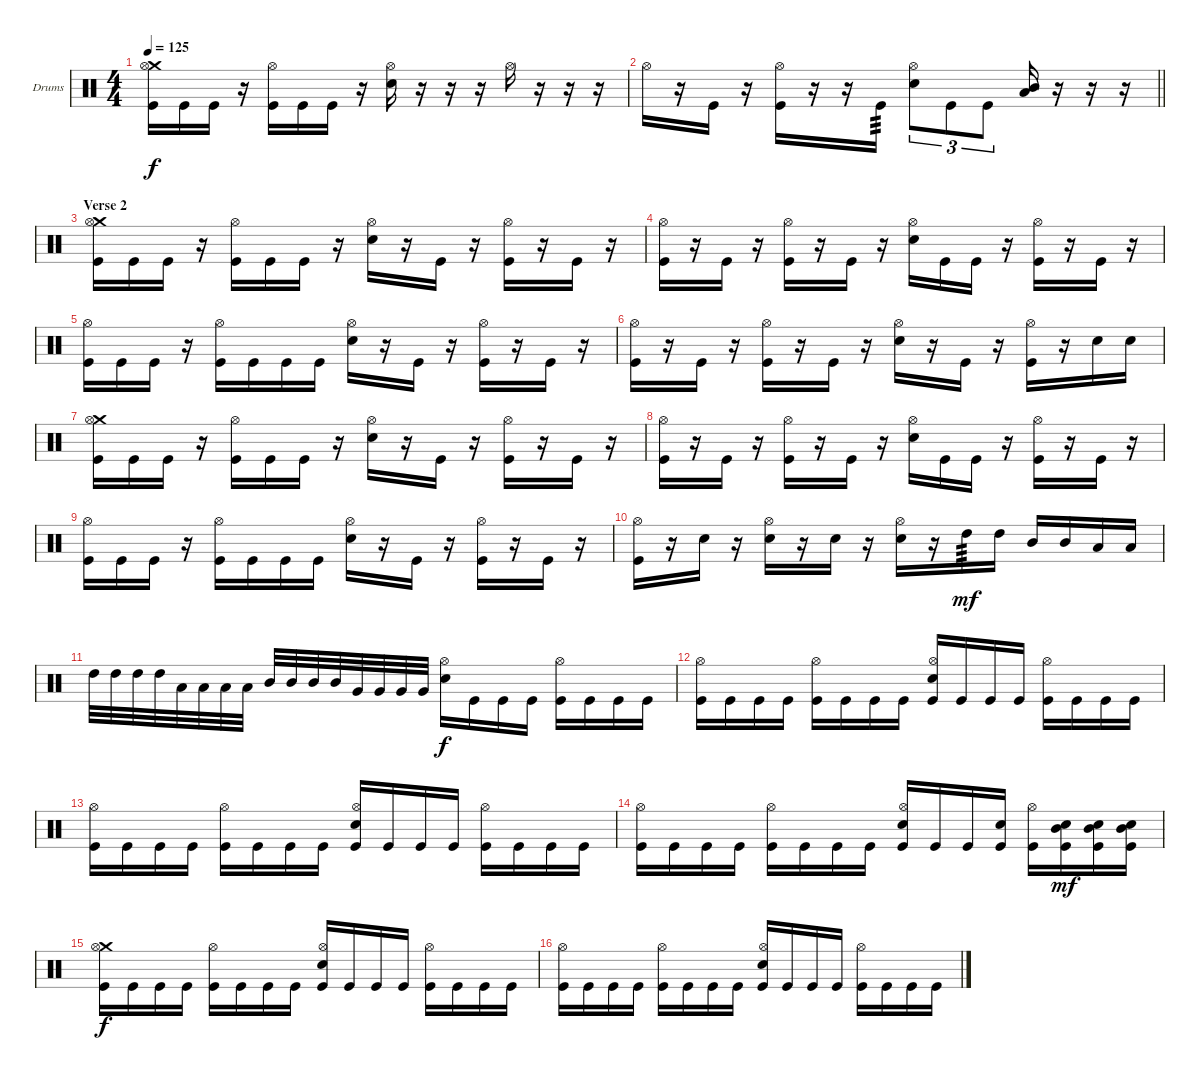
\bracketExtendMode groupsimilarinstruments
\firstSystemTrackNameOrientation horizontal
\otherSystemsTrackNameOrientation horizontal
\track ("Drumkit" "Drums") {instrument percussion}
\staff {score}
\articulation defaults
\ts (4 4)
\tempo 125
\clef neutral
\ks c
("Crash medium (hit)" "Kick (hit)" "Hi-Hat (open)").16{dy f} "Kick (hit)".16 "Kick (hit)".16 r.16 ("Kick (hit)" "Hi-Hat (open)").16 "Kick (hit)".16 "Kick (hit)".16 r.16 ("Snare (hit) 2" "Hi-Hat (open)").16 r.16 r.16 r.16 "Hi-Hat (open)".16 r.16 r.16 r.16 |
\barLineRight lightlight "Hi-Hat (open)".16
r.16 "Kick (hit)".16 r.16 ("Kick (hit)" "Hi-Hat (open)").16 r.16 r.16 "Kick (hit)".16{tp 3} ("Snare (hit) 2" "Hi-Hat (open)").8{tu (3 2)} "Kick (hit)".8{tu (3 2)} "Kick (hit)".8{tu (3 2)} ("Low Tom (hit)" "Mid Tom (hit)").16 r.16 r.16 r.16 |
\section ("" "Verse 2")
("Crash medium (hit)" "Kick (hit)" "Hi-Hat (open)").16 "Kick (hit)".16 "Kick (hit)".16 r.16 ("Kick (hit)" "Hi-Hat (open)").16 "Kick (hit)".16 "Kick (hit)".16 r.16 ("Snare (hit) 2" "Hi-Hat (open)").16 r.16 "Kick (hit)".16 r.16 ("Kick (hit)" "Hi-Hat (open)").16 r.16 "Kick (hit)".16 r.16 |
("Kick (hit)" "Hi-Hat (open)").16 r.16 "Kick (hit)".16 r.16 ("Kick (hit)" "Hi-Hat (open)").16 r.16 "Kick (hit)".16 r.16 ("Snare (hit) 2" "Hi-Hat (open)").16 "Kick (hit)".16 "Kick (hit)".16 r.16 ("Kick (hit)" "Hi-Hat (open)").16 r.16 "Kick (hit)".16 r.16 |
("Kick (hit)" "Hi-Hat (open)").16 "Kick (hit)".16 "Kick (hit)".16 r.16 ("Kick (hit)" "Hi-Hat (open)").16 "Kick (hit)".16 "Kick (hit)".16 "Kick (hit)".16 ("Snare (hit) 2" "Hi-Hat (open)").16 r.16 "Kick (hit)".16 r.16 ("Kick (hit)" "Hi-Hat (open)").16 r.16 "Kick (hit)".16 r.16 |
("Kick (hit)" "Hi-Hat (open)").16 r.16 "Kick (hit)".16 r.16 ("Kick (hit)" "Hi-Hat (open)").16 r.16 "Kick (hit)".16 r.16 ("Snare (hit) 2" "Hi-Hat (open)").16 r.16 "Kick (hit)".16 r.16 ("Kick (hit)" "Hi-Hat (open)").16 r.16 "Snare (hit) 2".16 "Snare (hit) 2".16 |
("Crash medium (hit)" "Kick (hit)" "Hi-Hat (open)").16 "Kick (hit)".16 "Kick (hit)".16 r.16 ("Kick (hit)" "Hi-Hat (open)").16 "Kick (hit)".16 "Kick (hit)".16 r.16 ("Snare (hit) 2" "Hi-Hat (open)").16 r.16 "Kick (hit)".16 r.16 ("Kick (hit)" "Hi-Hat (open)").16 r.16 "Kick (hit)".16 r.16 |
("Kick (hit)" "Hi-Hat (open)").16 r.16 "Kick (hit)".16 r.16 ("Kick (hit)" "Hi-Hat (open)").16 r.16 "Kick (hit)".16 r.16 ("Snare (hit) 2" "Hi-Hat (open)").16 "Kick (hit)".16 "Kick (hit)".16 r.16 ("Kick (hit)" "Hi-Hat (open)").16 r.16 "Kick (hit)".16 r.16 |
("Kick (hit)" "Hi-Hat (open)").16 "Kick (hit)".16 "Kick (hit)".16 r.16 ("Kick (hit)" "Hi-Hat (open)").16 "Kick (hit)".16 "Kick (hit)".16 "Kick (hit)".16 ("Snare (hit) 2" "Hi-Hat (open)").16 r.16 "Kick (hit)".16 r.16 ("Kick (hit)" "Hi-Hat (open)").16 r.16 "Kick (hit)".16 r.16 |
("Kick (hit)" "Hi-Hat (open)").16 r.16 "Snare (hit) 2".16 r.16 ("Snare (hit) 2" "Hi-Hat (open)").16 r.16 "Snare (hit) 2".16 r.16 ("Snare (hit) 2" "Hi-Hat (open)").16 r.16 "High Tom (hit)".16{tp 3 dy mf} "High Tom (hit)".16 "Mid Tom (hit)".16 "Mid Tom (hit)".16 "Low Tom (hit)".16 "Low Tom (hit)".16 |
"High Tom (hit)".32 "High Tom (hit)".32 "High Tom (hit)".32 "High Tom (hit)".32 "Low Tom (hit)".32 "Low Tom (hit)".32 "Low Tom (hit)".32 "Low Tom (hit)".32 "Mid Tom (hit)".32 "Mid Tom (hit)".32 "Mid Tom (hit)".32 "Mid Tom (hit)".32 "Very Low Tom (hit)".32 "Very Low Tom (hit)".32 "Very Low Tom (hit)".32 "Very Low Tom (hit)".32 ("Snare (hit) 2" "Hi-Hat (open)").16{dy f} "Kick (hit)".16 "Kick (hit)".16 "Kick (hit)".16 ("Kick (hit)" "Hi-Hat (open)").16 "Kick (hit)".16 "Kick (hit)".16 "Kick (hit)".16 |
("Kick (hit)" "Hi-Hat (open)").16 "Kick (hit)".16 "Kick (hit)".16 "Kick (hit)".16 ("Kick (hit)" "Hi-Hat (open)").16 "Kick (hit)".16 "Kick (hit)".16 "Kick (hit)".16 ("Snare (hit) 2" "Kick (hit)" "Hi-Hat (open)").16 "Kick (hit)".16 "Kick (hit)".16 "Kick (hit)".16 ("Kick (hit)" "Hi-Hat (open)").16 "Kick (hit)".16 "Kick (hit)".16 "Kick (hit)".16 |
("Kick (hit)" "Hi-Hat (open)").16 "Kick (hit)".16 "Kick (hit)".16 "Kick (hit)".16 ("Kick (hit)" "Hi-Hat (open)").16 "Kick (hit)".16 "Kick (hit)".16 "Kick (hit)".16 ("Snare (hit) 2" "Kick (hit)" "Hi-Hat (open)").16 "Kick (hit)".16 "Kick (hit)".16 "Kick (hit)".16 ("Kick (hit)" "Hi-Hat (open)").16 "Kick (hit)".16 "Kick (hit)".16 "Kick (hit)".16 |
("Kick (hit)" "Hi-Hat (open)").16 "Kick (hit)".16 "Kick (hit)".16 "Kick (hit)".16 ("Kick (hit)" "Hi-Hat (open)").16 "Kick (hit)".16 "Kick (hit)".16 "Kick (hit)".16 ("Snare (hit) 2" "Kick (hit)" "Hi-Hat (open)").16 "Kick (hit)".16 "Kick (hit)".16 ("Snare (hit) 2" "Kick (hit)").16 ("Kick (hit)" "Hi-Hat (open)").16 ("Snare (hit) 2" "Mid Tom (hit)" "Kick (hit)").16{dy mf} ("Snare (hit) 2" "Mid Tom (hit)" "Kick (hit)").16 ("Snare (hit) 2" "Mid Tom (hit)" "Kick (hit)").16 |
("Crash medium (hit)" "Kick (hit)" "Hi-Hat (open)").16{dy f} "Kick (hit)".16 "Kick (hit)".16 "Kick (hit)".16 ("Kick (hit)" "Hi-Hat (open)").16 "Kick (hit)".16 "Kick (hit)".16 "Kick (hit)".16 ("Snare (hit) 2" "Kick (hit)" "Hi-Hat (open)").16 "Kick (hit)".16 "Kick (hit)".16 "Kick (hit)".16 ("Kick (hit)" "Hi-Hat (open)").16 "Kick (hit)".16 "Kick (hit)".16 "Kick (hit)".16 |
("Kick (hit)" "Hi-Hat (open)").16 "Kick (hit)".16 "Kick (hit)".16 "Kick (hit)".16 ("Kick (hit)" "Hi-Hat (open)").16 "Kick (hit)".16 "Kick (hit)".16 "Kick (hit)".16 ("Snare (hit) 2" "Kick (hit)" "Hi-Hat (open)").16 "Kick (hit)".16 "Kick (hit)".16 "Kick (hit)".16 ("Kick (hit)" "Hi-Hat (open)").16 "Kick (hit)".16 "Kick (hit)".16 "Kick (hit)".16
